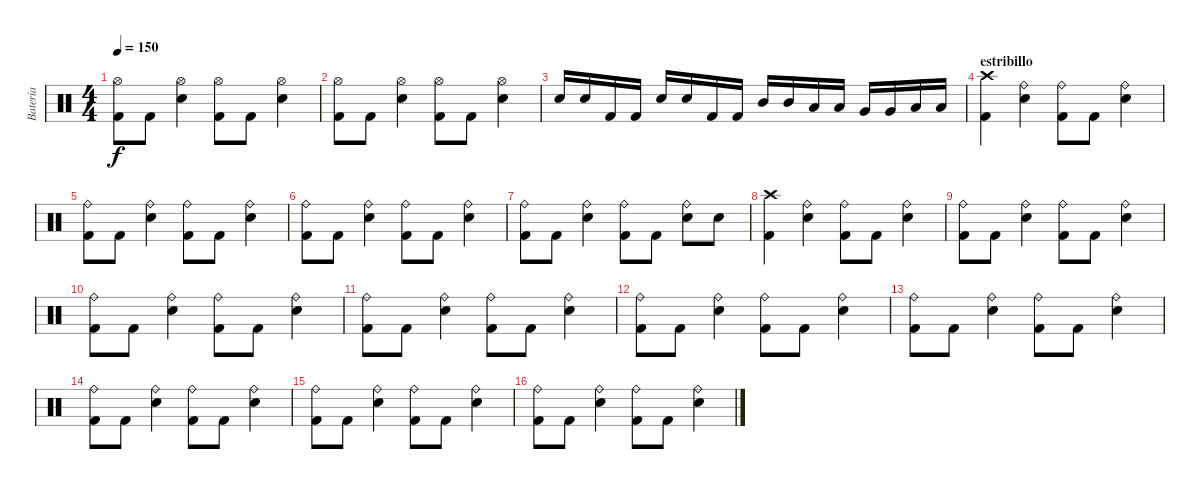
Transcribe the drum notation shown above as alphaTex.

\track ("Batería" "Batería") {instrument percussion}
\staff {score}
\articulation defaults
\ts (4 4)
\tempo 150
\clef neutral
\ks c
("Hi-Hat (open)" "Kick (hit) 2").8{dy f} "Kick (hit) 2".8 ("Hi-Hat (open)" "Electric Snare (hit)").4 ("Kick (hit) 2" "Hi-Hat (open)").8 "Kick (hit) 2".8 ("Hi-Hat (open)" "Electric Snare (hit)").4 |
("Hi-Hat (open)" "Kick (hit) 2").8 "Kick (hit) 2".8 ("Hi-Hat (open)" "Electric Snare (hit)").4 ("Kick (hit) 2" "Hi-Hat (open)").8 "Kick (hit) 2".8 ("Hi-Hat (open)" "Electric Snare (hit)").4 |
"Electric Snare (hit)".16 "Electric Snare (hit)".16 "Kick (hit) 2".16 "Kick (hit) 2".16 "Electric Snare (hit)".16 "Electric Snare (hit)".16 "Kick (hit) 2".16 "Kick (hit) 2".16 "Mid Tom (hit)".16 "Mid Tom (hit)".16 "Low Tom (hit)".16 "Low Tom (hit)".16 "Very Low Tom (hit)".16 "Very Low Tom (hit)".16 "Low Floor Tom (hit)".16 "Low Floor Tom (hit)".16 |
\section ("" "estribillo")
("Crash high (hit)" "Kick (hit) 2").4 ("Ride (bell)" "Electric Snare (hit)").4 ("Ride (bell)" "Kick (hit) 2").8 "Kick (hit) 2".8 ("Ride (bell)" "Electric Snare (hit)").4 |
("Ride (bell)" "Kick (hit) 2").8 "Kick (hit) 2".8 ("Ride (bell)" "Electric Snare (hit)").4 ("Ride (bell)" "Kick (hit) 2").8 "Kick (hit) 2".8 ("Ride (bell)" "Electric Snare (hit)").4 |
("Ride (bell)" "Kick (hit) 2").8 "Kick (hit) 2".8 ("Ride (bell)" "Electric Snare (hit)").4 ("Ride (bell)" "Kick (hit) 2").8 "Kick (hit) 2".8 ("Ride (bell)" "Electric Snare (hit)").4 |
("Ride (bell)" "Kick (hit) 2").8 "Kick (hit) 2".8 ("Ride (bell)" "Electric Snare (hit)").4 ("Ride (bell)" "Kick (hit) 2").8 "Kick (hit) 2".8 ("Ride (bell)" "Electric Snare (hit)").8 "Electric Snare (hit)".8 |
("Crash high (hit)" "Kick (hit) 2").4 ("Ride (bell)" "Electric Snare (hit)").4 ("Ride (bell)" "Kick (hit) 2").8 "Kick (hit) 2".8 ("Ride (bell)" "Electric Snare (hit)").4 |
("Ride (bell)" "Kick (hit) 2").8 "Kick (hit) 2".8 ("Ride (bell)" "Electric Snare (hit)").4 ("Ride (bell)" "Kick (hit) 2").8 "Kick (hit) 2".8 ("Ride (bell)" "Electric Snare (hit)").4 |
("Ride (bell)" "Kick (hit) 2").8 "Kick (hit) 2".8 ("Ride (bell)" "Electric Snare (hit)").4 ("Ride (bell)" "Kick (hit) 2").8 "Kick (hit) 2".8 ("Ride (bell)" "Electric Snare (hit)").4 |
("Ride (bell)" "Kick (hit) 2").8 "Kick (hit) 2".8 ("Ride (bell)" "Electric Snare (hit)").4 ("Ride (bell)" "Kick (hit) 2").8 "Kick (hit) 2".8 ("Ride (bell)" "Electric Snare (hit)").4 |
("Ride (bell)" "Kick (hit) 2").8 "Kick (hit) 2".8 ("Ride (bell)" "Electric Snare (hit)").4 ("Ride (bell)" "Kick (hit) 2").8 "Kick (hit) 2".8 ("Ride (bell)" "Electric Snare (hit)").4 |
("Ride (bell)" "Kick (hit) 2").8 "Kick (hit) 2".8 ("Ride (bell)" "Electric Snare (hit)").4 ("Ride (bell)" "Kick (hit) 2").8 "Kick (hit) 2".8 ("Ride (bell)" "Electric Snare (hit)").4 |
("Ride (bell)" "Kick (hit) 2").8 "Kick (hit) 2".8 ("Ride (bell)" "Electric Snare (hit)").4 ("Ride (bell)" "Kick (hit) 2").8 "Kick (hit) 2".8 ("Ride (bell)" "Electric Snare (hit)").4 |
("Ride (bell)" "Kick (hit) 2").8 "Kick (hit) 2".8 ("Ride (bell)" "Electric Snare (hit)").4 ("Ride (bell)" "Kick (hit) 2").8 "Kick (hit) 2".8 ("Ride (bell)" "Electric Snare (hit)").4 |
("Ride (bell)" "Kick (hit) 2").8 "Kick (hit) 2".8 ("Ride (bell)" "Electric Snare (hit)").4 ("Ride (bell)" "Kick (hit) 2").8 "Kick (hit) 2".8 ("Ride (bell)" "Electric Snare (hit)").4
